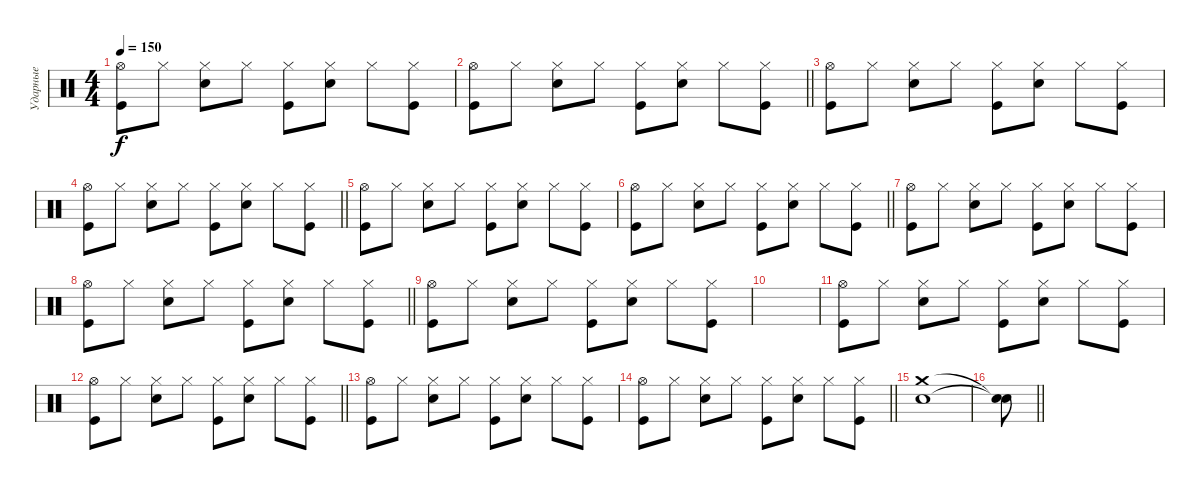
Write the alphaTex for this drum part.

\track ("Ударные" "Ударные") {instrument percussion}
\staff {score}
\articulation defaults
\ts (4 4)
\tempo 150
\clef neutral
\ks c
("Hi-Hat (open)" "Kick (hit)").8{dy f} "Hi-Hat (closed)".8 ("Hi-Hat (closed)" "Snare (hit) 2").8 "Hi-Hat (closed)".8 ("Hi-Hat (closed)" "Kick (hit)").8 ("Hi-Hat (closed)" "Snare (hit) 2").8 "Hi-Hat (closed)".8 ("Hi-Hat (closed)" "Kick (hit)").8 |
\barLineRight lightlight
("Hi-Hat (open)" "Kick (hit)").8 "Hi-Hat (closed)".8 ("Hi-Hat (closed)" "Snare (hit) 2").8 "Hi-Hat (closed)".8 ("Hi-Hat (closed)" "Kick (hit)").8 ("Hi-Hat (closed)" "Snare (hit) 2").8 "Hi-Hat (closed)".8 ("Hi-Hat (closed)" "Kick (hit)").8 |
("Hi-Hat (open)" "Kick (hit)").8 "Hi-Hat (closed)".8 ("Hi-Hat (closed)" "Snare (hit) 2").8 "Hi-Hat (closed)".8 ("Hi-Hat (closed)" "Kick (hit)").8 ("Hi-Hat (closed)" "Snare (hit) 2").8 "Hi-Hat (closed)".8 ("Hi-Hat (closed)" "Kick (hit)").8 |
\barLineRight lightlight
("Hi-Hat (open)" "Kick (hit)").8 "Hi-Hat (closed)".8 ("Hi-Hat (closed)" "Snare (hit) 2").8 "Hi-Hat (closed)".8 ("Hi-Hat (closed)" "Kick (hit)").8 ("Hi-Hat (closed)" "Snare (hit) 2").8 "Hi-Hat (closed)".8 ("Hi-Hat (closed)" "Kick (hit)").8 |
("Hi-Hat (open)" "Kick (hit)").8 "Hi-Hat (closed)".8 ("Hi-Hat (closed)" "Snare (hit) 2").8 "Hi-Hat (closed)".8 ("Hi-Hat (closed)" "Kick (hit)").8 ("Hi-Hat (closed)" "Snare (hit) 2").8 "Hi-Hat (closed)".8 ("Hi-Hat (closed)" "Kick (hit)").8 |
\barLineRight lightlight
("Hi-Hat (open)" "Kick (hit)").8 "Hi-Hat (closed)".8 ("Hi-Hat (closed)" "Snare (hit) 2").8 "Hi-Hat (closed)".8 ("Hi-Hat (closed)" "Kick (hit)").8 ("Hi-Hat (closed)" "Snare (hit) 2").8 "Hi-Hat (closed)".8 ("Hi-Hat (closed)" "Kick (hit)").8 |
("Hi-Hat (open)" "Kick (hit)").8 "Hi-Hat (closed)".8 ("Hi-Hat (closed)" "Snare (hit) 2").8 "Hi-Hat (closed)".8 ("Hi-Hat (closed)" "Kick (hit)").8 ("Hi-Hat (closed)" "Snare (hit) 2").8 "Hi-Hat (closed)".8 ("Hi-Hat (closed)" "Kick (hit)").8 |
\barLineRight lightlight
("Hi-Hat (open)" "Kick (hit)").8 "Hi-Hat (closed)".8 ("Hi-Hat (closed)" "Snare (hit) 2").8 "Hi-Hat (closed)".8 ("Hi-Hat (closed)" "Kick (hit)").8 ("Hi-Hat (closed)" "Snare (hit) 2").8 "Hi-Hat (closed)".8 ("Hi-Hat (closed)" "Kick (hit)").8 |
("Hi-Hat (open)" "Kick (hit)").8 "Hi-Hat (closed)".8 ("Hi-Hat (closed)" "Snare (hit) 2").8 "Hi-Hat (closed)".8 ("Hi-Hat (closed)" "Kick (hit)").8 ("Hi-Hat (closed)" "Snare (hit) 2").8 "Hi-Hat (closed)".8 ("Hi-Hat (closed)" "Kick (hit)").8 |
|
("Hi-Hat (open)" "Kick (hit)").8 "Hi-Hat (closed)".8 ("Hi-Hat (closed)" "Snare (hit) 2").8 "Hi-Hat (closed)".8 ("Hi-Hat (closed)" "Kick (hit)").8 ("Hi-Hat (closed)" "Snare (hit) 2").8 "Hi-Hat (closed)".8 ("Hi-Hat (closed)" "Kick (hit)").8 |
\barLineRight lightlight
("Hi-Hat (open)" "Kick (hit)").8 "Hi-Hat (closed)".8 ("Hi-Hat (closed)" "Snare (hit) 2").8 "Hi-Hat (closed)".8 ("Hi-Hat (closed)" "Kick (hit)").8 ("Hi-Hat (closed)" "Snare (hit) 2").8 "Hi-Hat (closed)".8 ("Hi-Hat (closed)" "Kick (hit)").8 |
("Hi-Hat (open)" "Kick (hit)").8 "Hi-Hat (closed)".8 ("Hi-Hat (closed)" "Snare (hit) 2").8 "Hi-Hat (closed)".8 ("Hi-Hat (closed)" "Kick (hit)").8 ("Hi-Hat (closed)" "Snare (hit) 2").8 "Hi-Hat (closed)".8 ("Hi-Hat (closed)" "Kick (hit)").8 |
\barLineRight lightlight
("Hi-Hat (open)" "Kick (hit)").8 "Hi-Hat (closed)".8 ("Hi-Hat (closed)" "Snare (hit) 2").8 "Hi-Hat (closed)".8 ("Hi-Hat (closed)" "Kick (hit)").8 ("Hi-Hat (closed)" "Snare (hit) 2").8 "Hi-Hat (closed)".8 ("Hi-Hat (closed)" "Kick (hit)").8 |
("Snare (hit) 2" "Crash medium (hit)").1 |
\barLineRight lightlight
("Snare (hit)"{t} "Snare (hit)"{t}).8
